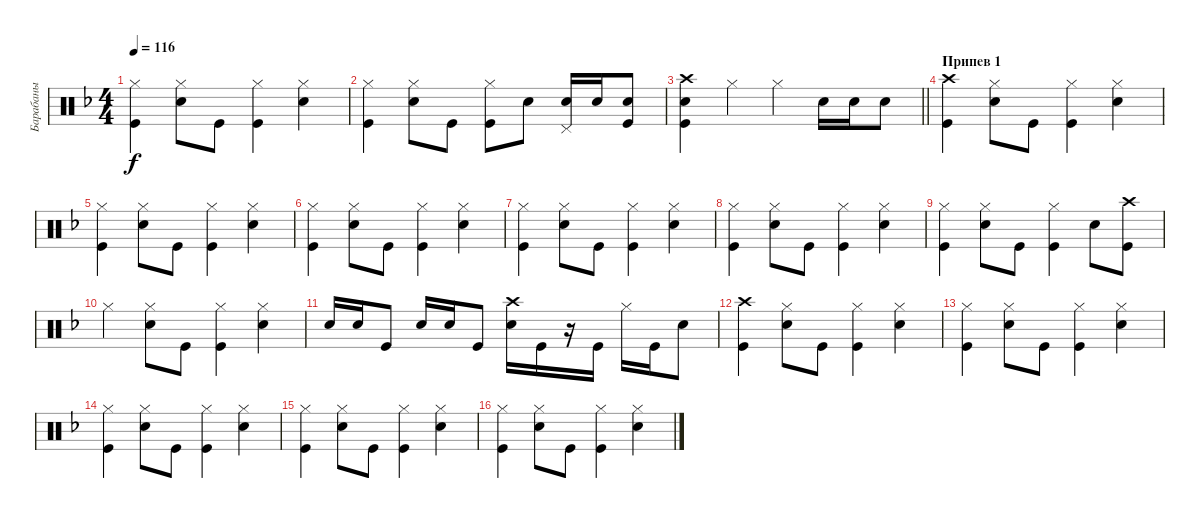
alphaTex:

\track ("Барабаны" "Барабаны") {instrument percussion}
\staff {score}
\articulation defaults
\ts (4 4)
\tempo 116
\clef neutral
\ks dminor
("Hi-Hat (closed)" "Kick (hit)").4{dy f} ("Hi-Hat (closed)" "Snare (hit) 2").8 "Kick (hit)".8 ("Hi-Hat (closed)" "Kick (hit)").4 ("Hi-Hat (closed)" "Snare (hit) 2").4 |
("Hi-Hat (closed)" "Kick (hit)").4 ("Hi-Hat (closed)" "Snare (hit) 2").8 "Kick (hit)".8 ("Hi-Hat (closed)" "Kick (hit)").8 "Snare (hit) 2".8 ("Snare (hit) 2" "Pedal Hi-Hat (hit)").16 "Snare (hit) 2".16 ("Snare (hit) 2" "Kick (hit)").8 |
\barLineRight lightlight
("Kick (hit)" "Crash high (hit)" "Snare (hit) 2").4 "Hi-Hat (closed)".4 "Hi-Hat (closed)".4 "Snare (hit) 2".16 "Snare (hit) 2".16 "Snare (hit) 2".8 |
\section ("" "Припев 1")
("Crash high (hit)" "Kick (hit)").4 ("Hi-Hat (closed)" "Snare (hit) 2").8 "Kick (hit)".8 ("Hi-Hat (closed)" "Kick (hit)").4 ("Hi-Hat (closed)" "Snare (hit) 2").4 |
("Hi-Hat (closed)" "Kick (hit)").4 ("Hi-Hat (closed)" "Snare (hit) 2").8 "Kick (hit)".8 ("Hi-Hat (closed)" "Kick (hit)").4 ("Hi-Hat (closed)" "Snare (hit) 2").4 |
("Hi-Hat (closed)" "Kick (hit)").4 ("Hi-Hat (closed)" "Snare (hit) 2").8 "Kick (hit)".8 ("Hi-Hat (closed)" "Kick (hit)").4 ("Hi-Hat (closed)" "Snare (hit) 2").4 |
("Hi-Hat (closed)" "Kick (hit)").4 ("Hi-Hat (closed)" "Snare (hit) 2").8 "Kick (hit)".8 ("Hi-Hat (closed)" "Kick (hit)").4 ("Hi-Hat (closed)" "Snare (hit) 2").4 |
("Hi-Hat (closed)" "Kick (hit)").4 ("Hi-Hat (closed)" "Snare (hit) 2").8 "Kick (hit)".8 ("Hi-Hat (closed)" "Kick (hit)").4 ("Hi-Hat (closed)" "Snare (hit) 2").4 |
("Hi-Hat (closed)" "Kick (hit)").4 ("Hi-Hat (closed)" "Snare (hit) 2").8 "Kick (hit)".8 ("Hi-Hat (closed)" "Kick (hit)").4 "Snare (hit) 2".8 ("Kick (hit)" "Crash high (hit)").8 |
"Hi-Hat (closed)".4 ("Hi-Hat (closed)" "Snare (hit) 2").8 "Kick (hit)".8 ("Hi-Hat (closed)" "Kick (hit)").4 ("Hi-Hat (closed)" "Snare (hit) 2").4 |
"Snare (hit) 2".16 "Snare (hit) 2".16 "Kick (hit)".8 "Snare (hit) 2".16 "Snare (hit) 2".16 "Kick (hit)".8 ("Snare (hit) 2" "Crash high (hit)").16 "Kick (hit)".16 r.16 "Kick (hit)".16 "Hi-Hat (closed)".16 "Kick (hit)".16 "Snare (hit) 2".8 |
("Crash high (hit)" "Kick (hit)").4 ("Hi-Hat (closed)" "Snare (hit) 2").8 "Kick (hit)".8 ("Hi-Hat (closed)" "Kick (hit)").4 ("Hi-Hat (closed)" "Snare (hit) 2").4 |
("Hi-Hat (closed)" "Kick (hit)").4 ("Hi-Hat (closed)" "Snare (hit) 2").8 "Kick (hit)".8 ("Hi-Hat (closed)" "Kick (hit)").4 ("Hi-Hat (closed)" "Snare (hit) 2").4 |
("Hi-Hat (closed)" "Kick (hit)").4 ("Hi-Hat (closed)" "Snare (hit) 2").8 "Kick (hit)".8 ("Hi-Hat (closed)" "Kick (hit)").4 ("Hi-Hat (closed)" "Snare (hit) 2").4 |
("Hi-Hat (closed)" "Kick (hit)").4 ("Hi-Hat (closed)" "Snare (hit) 2").8 "Kick (hit)".8 ("Hi-Hat (closed)" "Kick (hit)").4 ("Hi-Hat (closed)" "Snare (hit) 2").4 |
("Hi-Hat (closed)" "Kick (hit)").4 ("Hi-Hat (closed)" "Snare (hit) 2").8 "Kick (hit)".8 ("Hi-Hat (closed)" "Kick (hit)").4 ("Hi-Hat (closed)" "Snare (hit) 2").4
